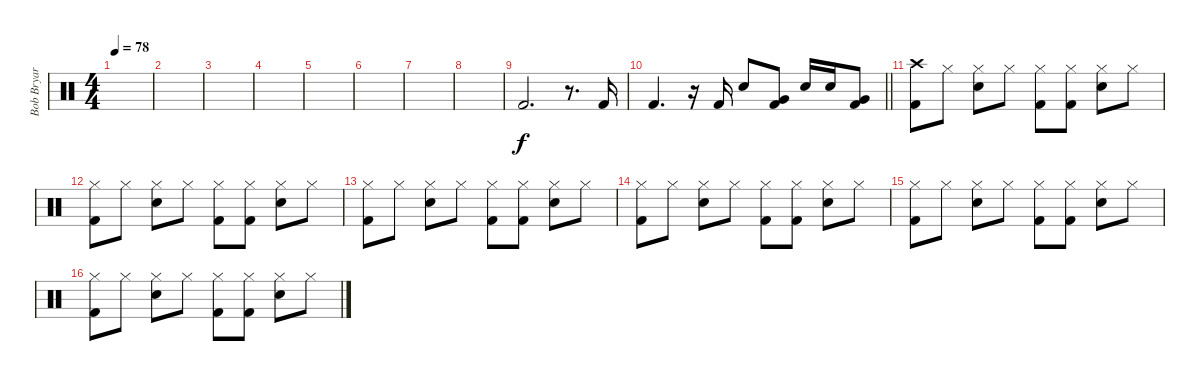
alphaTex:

\track ("Bob Bryar [Drums]" "Bob Bryar ") {instrument percussion}
\staff {score}
\articulation defaults
\ts (4 4)
\tempo 78
\clef neutral
\ks c
|
|
|
|
|
|
|
|
"Kick (hit) 2".2{d} r.8{d} "Kick (hit) 2".16 |
\barLineRight lightlight "Kick (hit) 2".4{d}
r.16 "Kick (hit) 2".16 "Electric Snare (hit)".8 ("Very Low Tom (hit)" "Kick (hit) 2").8 "Electric Snare (hit)".16 "Electric Snare (hit)".16 ("Very Low Tom (hit)" "Kick (hit) 2").8 |
("Crash high (hit)" "Kick (hit) 2").8 "Hi-Hat (closed)".8 ("Hi-Hat (closed)" "Electric Snare (hit)").8 "Hi-Hat (closed)".8 ("Hi-Hat (closed)" "Kick (hit) 2").8 ("Hi-Hat (closed)" "Kick (hit) 2").8 ("Hi-Hat (closed)" "Electric Snare (hit)").8 "Hi-Hat (closed)".8 |
("Hi-Hat (closed)" "Kick (hit) 2").8 "Hi-Hat (closed)".8 ("Hi-Hat (closed)" "Electric Snare (hit)").8 "Hi-Hat (closed)".8 ("Hi-Hat (closed)" "Kick (hit) 2").8 ("Hi-Hat (closed)" "Kick (hit) 2").8 ("Hi-Hat (closed)" "Electric Snare (hit)").8 "Hi-Hat (closed)".8 |
("Hi-Hat (closed)" "Kick (hit) 2").8 "Hi-Hat (closed)".8 ("Hi-Hat (closed)" "Electric Snare (hit)").8 "Hi-Hat (closed)".8 ("Hi-Hat (closed)" "Kick (hit) 2").8 ("Hi-Hat (closed)" "Kick (hit) 2").8 ("Hi-Hat (closed)" "Electric Snare (hit)").8 "Hi-Hat (closed)".8 |
("Hi-Hat (closed)" "Kick (hit) 2").8 "Hi-Hat (closed)".8 ("Hi-Hat (closed)" "Electric Snare (hit)").8 "Hi-Hat (closed)".8 ("Hi-Hat (closed)" "Kick (hit) 2").8 ("Hi-Hat (closed)" "Kick (hit) 2").8 ("Hi-Hat (closed)" "Electric Snare (hit)").8 "Hi-Hat (closed)".8 |
("Hi-Hat (closed)" "Kick (hit) 2").8 "Hi-Hat (closed)".8 ("Hi-Hat (closed)" "Electric Snare (hit)").8 "Hi-Hat (closed)".8 ("Hi-Hat (closed)" "Kick (hit) 2").8 ("Hi-Hat (closed)" "Kick (hit) 2").8 ("Hi-Hat (closed)" "Electric Snare (hit)").8 "Hi-Hat (closed)".8 |
("Hi-Hat (closed)" "Kick (hit) 2").8 "Hi-Hat (closed)".8 ("Hi-Hat (closed)" "Electric Snare (hit)").8 "Hi-Hat (closed)".8 ("Hi-Hat (closed)" "Kick (hit) 2").8 ("Hi-Hat (closed)" "Kick (hit) 2").8 ("Hi-Hat (closed)" "Electric Snare (hit)").8 "Hi-Hat (closed)".8
